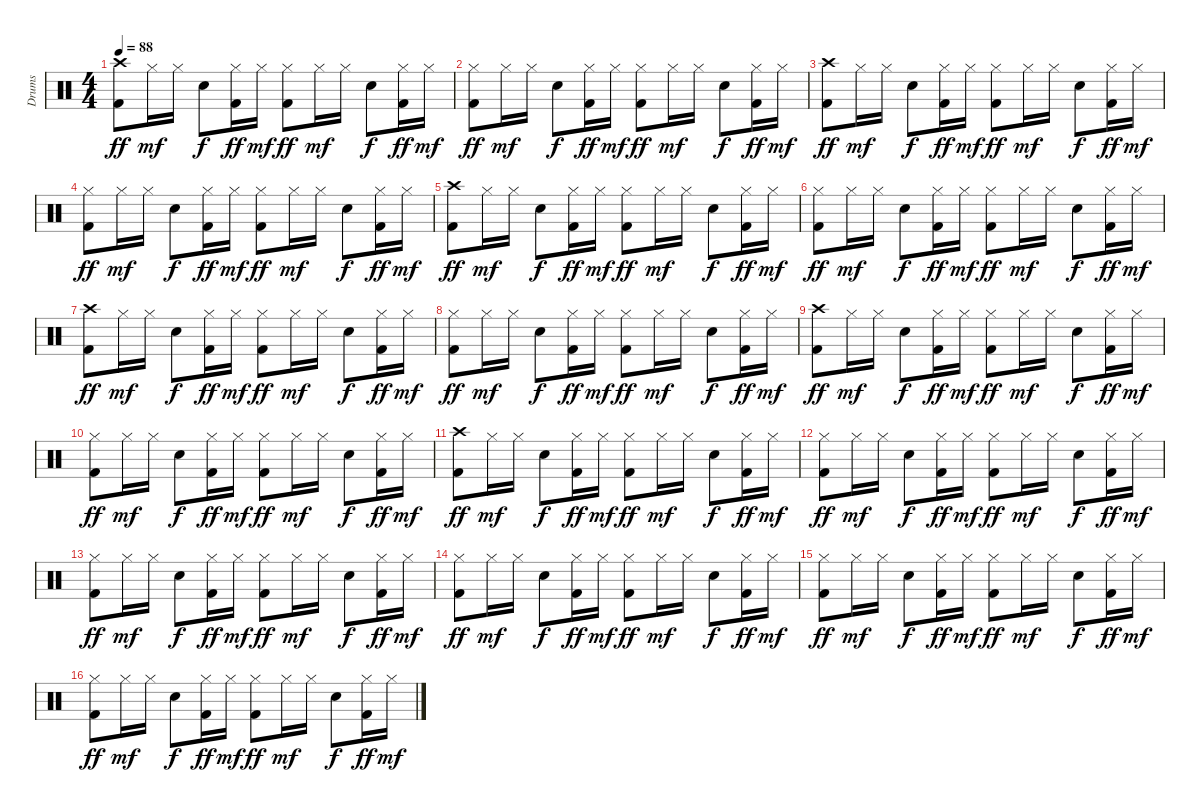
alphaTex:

\track ("Drums" "Drums") {instrument percussion}
\staff {score}
\articulation defaults
\ts (4 4)
\tempo 88
\clef neutral
\ks c
("Crash high (hit)" "Kick (hit) 2").8{dy ff} "Hi-Hat (closed)".16{dy mf} "Hi-Hat (closed)".16 "Snare (hit) 2".8{dy f} ("Hi-Hat (closed)" "Kick (hit) 2").16{dy ff} "Hi-Hat (closed)".16{dy mf} ("Hi-Hat (closed)" "Kick (hit) 2").8{dy ff} "Hi-Hat (closed)".16{dy mf} "Hi-Hat (closed)".16 "Snare (hit) 2".8{dy f} ("Hi-Hat (closed)" "Kick (hit) 2").16{dy ff} "Hi-Hat (closed)".16{dy mf} |
("Hi-Hat (closed)" "Kick (hit) 2").8{dy ff} "Hi-Hat (closed)".16{dy mf} "Hi-Hat (closed)".16 "Snare (hit) 2".8{dy f} ("Hi-Hat (closed)" "Kick (hit) 2").16{dy ff} "Hi-Hat (closed)".16{dy mf} ("Hi-Hat (closed)" "Kick (hit) 2").8{dy ff} "Hi-Hat (closed)".16{dy mf} "Hi-Hat (closed)".16 "Snare (hit) 2".8{dy f} ("Hi-Hat (closed)" "Kick (hit) 2").16{dy ff} "Hi-Hat (closed)".16{dy mf} |
("Crash high (hit)" "Kick (hit) 2").8{dy ff} "Hi-Hat (closed)".16{dy mf} "Hi-Hat (closed)".16 "Snare (hit) 2".8{dy f} ("Hi-Hat (closed)" "Kick (hit) 2").16{dy ff} "Hi-Hat (closed)".16{dy mf} ("Hi-Hat (closed)" "Kick (hit) 2").8{dy ff} "Hi-Hat (closed)".16{dy mf} "Hi-Hat (closed)".16 "Snare (hit) 2".8{dy f} ("Hi-Hat (closed)" "Kick (hit) 2").16{dy ff} "Hi-Hat (closed)".16{dy mf} |
("Hi-Hat (closed)" "Kick (hit) 2").8{dy ff} "Hi-Hat (closed)".16{dy mf} "Hi-Hat (closed)".16 "Snare (hit) 2".8{dy f} ("Hi-Hat (closed)" "Kick (hit) 2").16{dy ff} "Hi-Hat (closed)".16{dy mf} ("Hi-Hat (closed)" "Kick (hit) 2").8{dy ff} "Hi-Hat (closed)".16{dy mf} "Hi-Hat (closed)".16 "Snare (hit) 2".8{dy f} ("Hi-Hat (closed)" "Kick (hit) 2").16{dy ff} "Hi-Hat (closed)".16{dy mf} |
("Crash high (hit)" "Kick (hit) 2").8{dy ff} "Hi-Hat (closed)".16{dy mf} "Hi-Hat (closed)".16 "Snare (hit) 2".8{dy f} ("Hi-Hat (closed)" "Kick (hit) 2").16{dy ff} "Hi-Hat (closed)".16{dy mf} ("Hi-Hat (closed)" "Kick (hit) 2").8{dy ff} "Hi-Hat (closed)".16{dy mf} "Hi-Hat (closed)".16 "Snare (hit) 2".8{dy f} ("Hi-Hat (closed)" "Kick (hit) 2").16{dy ff} "Hi-Hat (closed)".16{dy mf} |
("Hi-Hat (closed)" "Kick (hit) 2").8{dy ff} "Hi-Hat (closed)".16{dy mf} "Hi-Hat (closed)".16 "Snare (hit) 2".8{dy f} ("Hi-Hat (closed)" "Kick (hit) 2").16{dy ff} "Hi-Hat (closed)".16{dy mf} ("Hi-Hat (closed)" "Kick (hit) 2").8{dy ff} "Hi-Hat (closed)".16{dy mf} "Hi-Hat (closed)".16 "Snare (hit) 2".8{dy f} ("Hi-Hat (closed)" "Kick (hit) 2").16{dy ff} "Hi-Hat (closed)".16{dy mf} |
("Crash high (hit)" "Kick (hit) 2").8{dy ff} "Hi-Hat (closed)".16{dy mf} "Hi-Hat (closed)".16 "Snare (hit) 2".8{dy f} ("Hi-Hat (closed)" "Kick (hit) 2").16{dy ff} "Hi-Hat (closed)".16{dy mf} ("Hi-Hat (closed)" "Kick (hit) 2").8{dy ff} "Hi-Hat (closed)".16{dy mf} "Hi-Hat (closed)".16 "Snare (hit) 2".8{dy f} ("Hi-Hat (closed)" "Kick (hit) 2").16{dy ff} "Hi-Hat (closed)".16{dy mf} |
("Hi-Hat (closed)" "Kick (hit) 2").8{dy ff} "Hi-Hat (closed)".16{dy mf} "Hi-Hat (closed)".16 "Snare (hit) 2".8{dy f} ("Hi-Hat (closed)" "Kick (hit) 2").16{dy ff} "Hi-Hat (closed)".16{dy mf} ("Hi-Hat (closed)" "Kick (hit) 2").8{dy ff} "Hi-Hat (closed)".16{dy mf} "Hi-Hat (closed)".16 "Snare (hit) 2".8{dy f} ("Hi-Hat (closed)" "Kick (hit) 2").16{dy ff} "Hi-Hat (closed)".16{dy mf} |
("Crash high (hit)" "Kick (hit) 2").8{dy ff} "Hi-Hat (closed)".16{dy mf} "Hi-Hat (closed)".16 "Snare (hit) 2".8{dy f} ("Hi-Hat (closed)" "Kick (hit) 2").16{dy ff} "Hi-Hat (closed)".16{dy mf} ("Hi-Hat (closed)" "Kick (hit) 2").8{dy ff} "Hi-Hat (closed)".16{dy mf} "Hi-Hat (closed)".16 "Snare (hit) 2".8{dy f} ("Hi-Hat (closed)" "Kick (hit) 2").16{dy ff} "Hi-Hat (closed)".16{dy mf} |
("Hi-Hat (closed)" "Kick (hit) 2").8{dy ff} "Hi-Hat (closed)".16{dy mf} "Hi-Hat (closed)".16 "Snare (hit) 2".8{dy f} ("Hi-Hat (closed)" "Kick (hit) 2").16{dy ff} "Hi-Hat (closed)".16{dy mf} ("Hi-Hat (closed)" "Kick (hit) 2").8{dy ff} "Hi-Hat (closed)".16{dy mf} "Hi-Hat (closed)".16 "Snare (hit) 2".8{dy f} ("Hi-Hat (closed)" "Kick (hit) 2").16{dy ff} "Hi-Hat (closed)".16{dy mf} |
("Crash high (hit)" "Kick (hit) 2").8{dy ff} "Hi-Hat (closed)".16{dy mf} "Hi-Hat (closed)".16 "Snare (hit) 2".8{dy f} ("Hi-Hat (closed)" "Kick (hit) 2").16{dy ff} "Hi-Hat (closed)".16{dy mf} ("Hi-Hat (closed)" "Kick (hit) 2").8{dy ff} "Hi-Hat (closed)".16{dy mf} "Hi-Hat (closed)".16 "Snare (hit) 2".8{dy f} ("Hi-Hat (closed)" "Kick (hit) 2").16{dy ff} "Hi-Hat (closed)".16{dy mf} |
("Hi-Hat (closed)" "Kick (hit) 2").8{dy ff} "Hi-Hat (closed)".16{dy mf} "Hi-Hat (closed)".16 "Snare (hit) 2".8{dy f} ("Hi-Hat (closed)" "Kick (hit) 2").16{dy ff} "Hi-Hat (closed)".16{dy mf} ("Hi-Hat (closed)" "Kick (hit) 2").8{dy ff} "Hi-Hat (closed)".16{dy mf} "Hi-Hat (closed)".16 "Snare (hit) 2".8{dy f} ("Hi-Hat (closed)" "Kick (hit) 2").16{dy ff} "Hi-Hat (closed)".16{dy mf} |
("Hi-Hat (closed)" "Kick (hit) 2").8{dy ff} "Hi-Hat (closed)".16{dy mf} "Hi-Hat (closed)".16 "Snare (hit) 2".8{dy f} ("Hi-Hat (closed)" "Kick (hit) 2").16{dy ff} "Hi-Hat (closed)".16{dy mf} ("Hi-Hat (closed)" "Kick (hit) 2").8{dy ff} "Hi-Hat (closed)".16{dy mf} "Hi-Hat (closed)".16 "Snare (hit) 2".8{dy f} ("Hi-Hat (closed)" "Kick (hit) 2").16{dy ff} "Hi-Hat (closed)".16{dy mf} |
("Hi-Hat (closed)" "Kick (hit) 2").8{dy ff} "Hi-Hat (closed)".16{dy mf} "Hi-Hat (closed)".16 "Snare (hit) 2".8{dy f} ("Hi-Hat (closed)" "Kick (hit) 2").16{dy ff} "Hi-Hat (closed)".16{dy mf} ("Hi-Hat (closed)" "Kick (hit) 2").8{dy ff} "Hi-Hat (closed)".16{dy mf} "Hi-Hat (closed)".16 "Snare (hit) 2".8{dy f} ("Hi-Hat (closed)" "Kick (hit) 2").16{dy ff} "Hi-Hat (closed)".16{dy mf} |
("Hi-Hat (closed)" "Kick (hit) 2").8{dy ff} "Hi-Hat (closed)".16{dy mf} "Hi-Hat (closed)".16 "Snare (hit) 2".8{dy f} ("Hi-Hat (closed)" "Kick (hit) 2").16{dy ff} "Hi-Hat (closed)".16{dy mf} ("Hi-Hat (closed)" "Kick (hit) 2").8{dy ff} "Hi-Hat (closed)".16{dy mf} "Hi-Hat (closed)".16 "Snare (hit) 2".8{dy f} ("Hi-Hat (closed)" "Kick (hit) 2").16{dy ff} "Hi-Hat (closed)".16{dy mf} |
("Hi-Hat (closed)" "Kick (hit) 2").8{dy ff} "Hi-Hat (closed)".16{dy mf} "Hi-Hat (closed)".16 "Snare (hit) 2".8{dy f} ("Hi-Hat (closed)" "Kick (hit) 2").16{dy ff} "Hi-Hat (closed)".16{dy mf} ("Hi-Hat (closed)" "Kick (hit) 2").8{dy ff} "Hi-Hat (closed)".16{dy mf} "Hi-Hat (closed)".16 "Snare (hit) 2".8{dy f} ("Hi-Hat (closed)" "Kick (hit) 2").16{dy ff} "Hi-Hat (closed)".16{dy mf}
